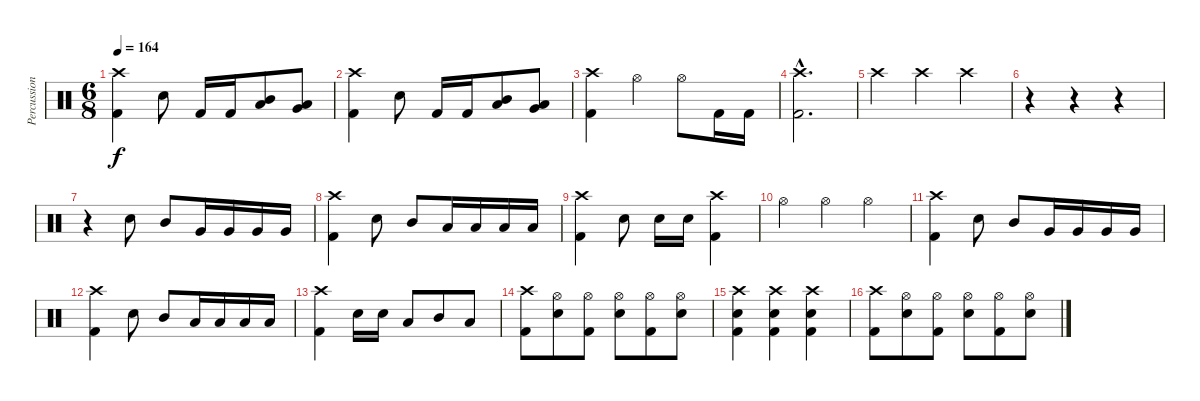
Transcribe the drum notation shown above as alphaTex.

\track ("Percussion" "Percussion") {instrument percussion}
\staff {score}
\articulation defaults
\ts (6 8)
\tempo 164
\clef neutral
\ks c
("Crash high (hit)" "Kick (hit) 2").4{dy f} "Snare (hit) 2".8 "Kick (hit) 2".16 "Kick (hit) 2".16 ("Mid Tom (hit)" "Low Tom (hit)").8 ("Low Tom (hit)" "Very Low Tom (hit)").8 |
("Crash high (hit)" "Kick (hit) 2").4 "Snare (hit) 2".8 "Kick (hit) 2".16 "Kick (hit) 2".16 ("Mid Tom (hit)" "Low Tom (hit)").8 ("Low Tom (hit)" "Very Low Tom (hit)").8 |
("Crash high (hit)" "Kick (hit) 2").4 "Hi-Hat (open)".4 "Hi-Hat (open)".8 "Kick (hit) 2".16 "Kick (hit) 2".16 |
("Crash high (hit)"{hac} "Kick (hit) 2"{hac}).2{d} |
"Crash high (hit)".4 "Crash high (hit)".4 "Crash high (hit)".4 |
r.4 r.4 r.4 |
r.4 "Snare (hit) 2".8 "Mid Tom (hit)".8 "Very Low Tom (hit)".16 "Very Low Tom (hit)".16 "Very Low Tom (hit)".16 "Very Low Tom (hit)".16 |
("Crash high (hit)" "Kick (hit) 2").4 "Snare (hit) 2".8 "Mid Tom (hit)".8 "Low Tom (hit)".16 "Low Tom (hit)".16 "Low Tom (hit)".16 "Low Tom (hit)".16 |
("Crash high (hit)" "Kick (hit) 2").4 "Snare (hit) 2".8 "Snare (hit) 2".16 "Snare (hit) 2".16 ("Crash high (hit)" "Kick (hit) 2").4 |
"Hi-Hat (open)".4 "Hi-Hat (open)".4 "Hi-Hat (open)".4 |
("Crash high (hit)" "Kick (hit) 2").4 "Snare (hit) 2".8 "Mid Tom (hit)".8 "Very Low Tom (hit)".16 "Very Low Tom (hit)".16 "Very Low Tom (hit)".16 "Very Low Tom (hit)".16 |
("Crash high (hit)" "Kick (hit) 2").4 "Snare (hit) 2".8 "Mid Tom (hit)".8 "Low Tom (hit)".16 "Low Tom (hit)".16 "Low Tom (hit)".16 "Low Tom (hit)".16 |
("Crash high (hit)" "Kick (hit) 2").4 "Snare (hit) 2".16 "Snare (hit) 2".16 "Low Tom (hit)".8 "Mid Tom (hit)".8 "Low Tom (hit)".8 |
("Crash high (hit)" "Kick (hit) 2").8 ("Hi-Hat (open)" "Snare (hit) 2").8 ("Hi-Hat (open)" "Kick (hit) 2").8 ("Hi-Hat (open)" "Snare (hit) 2").8 ("Hi-Hat (open)" "Kick (hit) 2").8 ("Hi-Hat (open)" "Snare (hit) 2").8 |
("Crash high (hit)" "Snare (hit) 2" "Kick (hit) 2").4 ("Crash high (hit)" "Snare (hit) 2" "Kick (hit) 2").4 ("Crash high (hit)" "Snare (hit) 2" "Kick (hit) 2").4 |
("Crash high (hit)" "Kick (hit) 2").8 ("Hi-Hat (open)" "Snare (hit) 2").8 ("Hi-Hat (open)" "Kick (hit) 2").8 ("Hi-Hat (open)" "Snare (hit) 2").8 ("Hi-Hat (open)" "Kick (hit) 2").8 ("Hi-Hat (open)" "Snare (hit) 2").8
